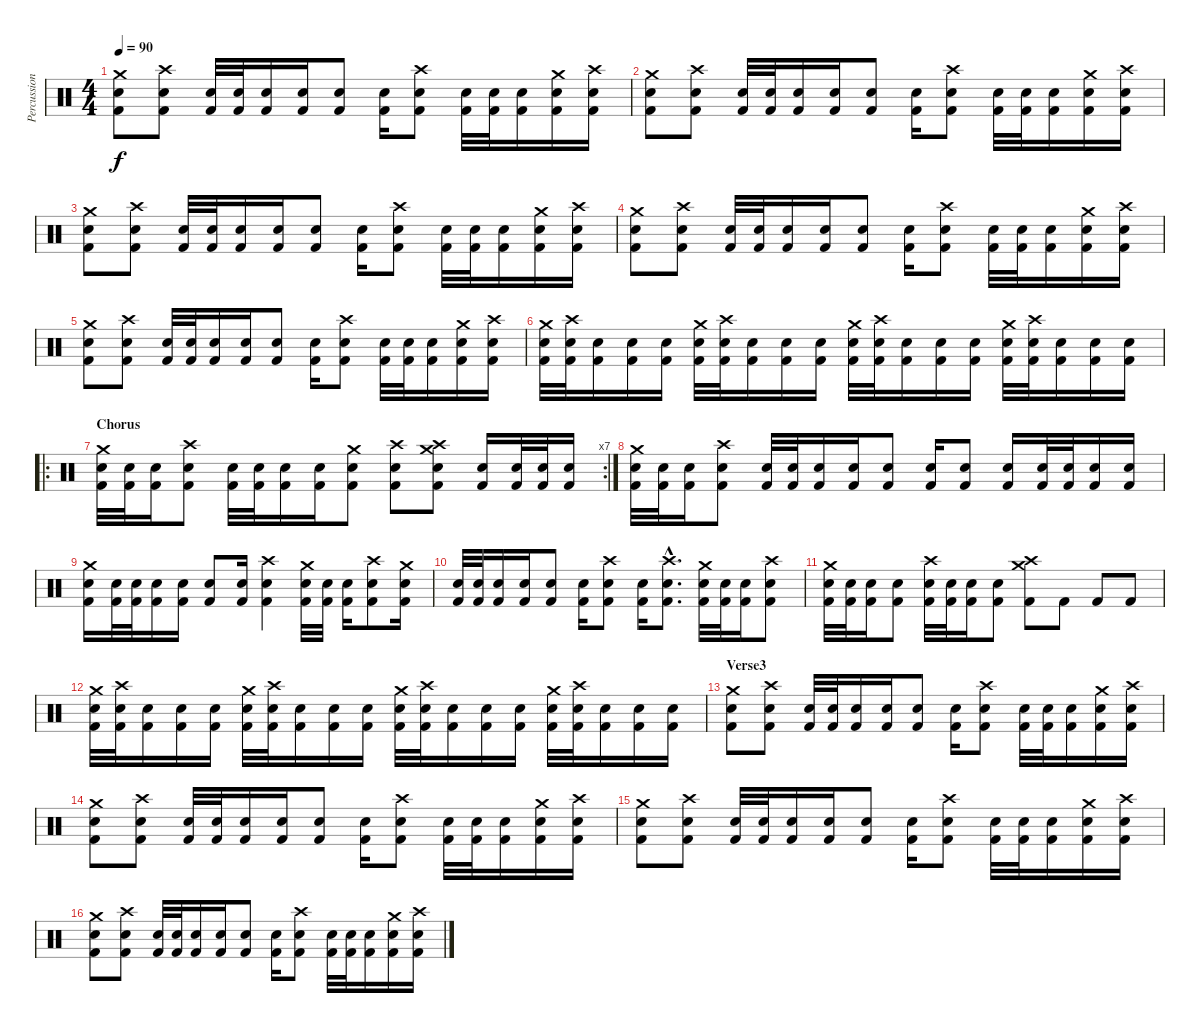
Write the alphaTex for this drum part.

\track ("Percussion" "Percussion") {instrument percussion}
\staff {score}
\articulation defaults
\ts (4 4)
\tempo 90
\clef neutral
\ks c
("Crash medium (hit)" "Kick (hit) 2" "Electric Snare (hit)").8{dy f} ("Crash high (hit)" "Kick (hit) 2" "Electric Snare (hit)").8 ("Kick (hit) 2" "Electric Snare (hit)").32 ("Kick (hit) 2" "Electric Snare (hit)").32 ("Kick (hit) 2" "Electric Snare (hit)").16 ("Kick (hit) 2" "Electric Snare (hit)").16 ("Kick (hit) 2" "Electric Snare (hit)").8 ("Kick (hit) 2" "Electric Snare (hit)").16 ("Crash high (hit)" "Kick (hit) 2" "Electric Snare (hit)").8 ("Kick (hit) 2" "Electric Snare (hit)").32 ("Kick (hit) 2" "Electric Snare (hit)").32 ("Kick (hit) 2" "Electric Snare (hit)").16 ("Crash medium (hit)" "Kick (hit) 2" "Electric Snare (hit)").16 ("Crash high (hit)" "Kick (hit) 2" "Electric Snare (hit)").16 |
("Crash medium (hit)" "Kick (hit) 2" "Electric Snare (hit)").8 ("Crash high (hit)" "Kick (hit) 2" "Electric Snare (hit)").8 ("Kick (hit) 2" "Electric Snare (hit)").32 ("Kick (hit) 2" "Electric Snare (hit)").32 ("Kick (hit) 2" "Electric Snare (hit)").16 ("Kick (hit) 2" "Electric Snare (hit)").16 ("Kick (hit) 2" "Electric Snare (hit)").8 ("Kick (hit) 2" "Electric Snare (hit)").16 ("Crash high (hit)" "Kick (hit) 2" "Electric Snare (hit)").8 ("Kick (hit) 2" "Electric Snare (hit)").32 ("Kick (hit) 2" "Electric Snare (hit)").32 ("Kick (hit) 2" "Electric Snare (hit)").16 ("Crash medium (hit)" "Kick (hit) 2" "Electric Snare (hit)").16 ("Crash high (hit)" "Kick (hit) 2" "Electric Snare (hit)").16 |
("Crash medium (hit)" "Kick (hit) 2" "Electric Snare (hit)").8 ("Crash high (hit)" "Kick (hit) 2" "Electric Snare (hit)").8 ("Kick (hit) 2" "Electric Snare (hit)").32 ("Kick (hit) 2" "Electric Snare (hit)").32 ("Kick (hit) 2" "Electric Snare (hit)").16 ("Kick (hit) 2" "Electric Snare (hit)").16 ("Kick (hit) 2" "Electric Snare (hit)").8 ("Kick (hit) 2" "Electric Snare (hit)").16 ("Crash high (hit)" "Kick (hit) 2" "Electric Snare (hit)").8 ("Kick (hit) 2" "Electric Snare (hit)").32 ("Kick (hit) 2" "Electric Snare (hit)").32 ("Kick (hit) 2" "Electric Snare (hit)").16 ("Crash medium (hit)" "Kick (hit) 2" "Electric Snare (hit)").16 ("Crash high (hit)" "Kick (hit) 2" "Electric Snare (hit)").16 |
("Crash medium (hit)" "Kick (hit) 2" "Electric Snare (hit)").8 ("Crash high (hit)" "Kick (hit) 2" "Electric Snare (hit)").8 ("Kick (hit) 2" "Electric Snare (hit)").32 ("Kick (hit) 2" "Electric Snare (hit)").32 ("Kick (hit) 2" "Electric Snare (hit)").16 ("Kick (hit) 2" "Electric Snare (hit)").16 ("Kick (hit) 2" "Electric Snare (hit)").8 ("Kick (hit) 2" "Electric Snare (hit)").16 ("Crash high (hit)" "Kick (hit) 2" "Electric Snare (hit)").8 ("Kick (hit) 2" "Electric Snare (hit)").32 ("Kick (hit) 2" "Electric Snare (hit)").32 ("Kick (hit) 2" "Electric Snare (hit)").16 ("Crash medium (hit)" "Kick (hit) 2" "Electric Snare (hit)").16 ("Crash high (hit)" "Kick (hit) 2" "Electric Snare (hit)").16 |
("Crash medium (hit)" "Kick (hit) 2" "Electric Snare (hit)").8 ("Crash high (hit)" "Kick (hit) 2" "Electric Snare (hit)").8 ("Kick (hit) 2" "Electric Snare (hit)").32 ("Kick (hit) 2" "Electric Snare (hit)").32 ("Kick (hit) 2" "Electric Snare (hit)").16 ("Kick (hit) 2" "Electric Snare (hit)").16 ("Kick (hit) 2" "Electric Snare (hit)").8 ("Kick (hit) 2" "Electric Snare (hit)").16 ("Crash high (hit)" "Kick (hit) 2" "Electric Snare (hit)").8 ("Kick (hit) 2" "Electric Snare (hit)").32 ("Kick (hit) 2" "Electric Snare (hit)").32 ("Kick (hit) 2" "Electric Snare (hit)").16 ("Crash medium (hit)" "Kick (hit) 2" "Electric Snare (hit)").16 ("Crash high (hit)" "Kick (hit) 2" "Electric Snare (hit)").16 |
("Crash medium (hit)" "Electric Snare (hit)" "Kick (hit) 2").32 ("Crash high (hit)" "Electric Snare (hit)" "Kick (hit) 2").32 ("Electric Snare (hit)" "Kick (hit) 2").16 ("Electric Snare (hit)" "Kick (hit) 2").16 ("Electric Snare (hit)" "Kick (hit) 2").16 ("Crash medium (hit)" "Electric Snare (hit)" "Kick (hit) 2").32 ("Crash high (hit)" "Electric Snare (hit)" "Kick (hit) 2").32 ("Electric Snare (hit)" "Kick (hit) 2").16 ("Electric Snare (hit)" "Kick (hit) 2").16 ("Electric Snare (hit)" "Kick (hit) 2").16 ("Crash medium (hit)" "Electric Snare (hit)" "Kick (hit) 2").32 ("Crash high (hit)" "Electric Snare (hit)" "Kick (hit) 2").32 ("Electric Snare (hit)" "Kick (hit) 2").16 ("Electric Snare (hit)" "Kick (hit) 2").16 ("Electric Snare (hit)" "Kick (hit) 2").16 ("Crash medium (hit)" "Electric Snare (hit)" "Kick (hit) 2").32 ("Crash high (hit)" "Electric Snare (hit)" "Kick (hit) 2").32 ("Electric Snare (hit)" "Kick (hit) 2").16 ("Electric Snare (hit)" "Kick (hit) 2").16 ("Electric Snare (hit)" "Kick (hit) 2").16 |
\ro
\rc 7
\section ("" "Chorus")
("Crash medium (hit)" "Electric Snare (hit)" "Kick (hit) 2").32 ("Electric Snare (hit)" "Kick (hit) 2").32 ("Electric Snare (hit)" "Kick (hit) 2").16 ("Crash high (hit)" "Electric Snare (hit)" "Kick (hit) 2").8 ("Kick (hit) 2" "Electric Snare (hit)").32 ("Kick (hit) 2" "Electric Snare (hit)").32 ("Kick (hit) 2" "Electric Snare (hit)").16 ("Kick (hit) 2" "Electric Snare (hit)").16 ("Crash medium (hit)" "Kick (hit) 2" "Electric Snare (hit)").8 ("Crash high (hit)" "Kick (hit) 2" "Electric Snare (hit)").8 ("Crash medium (hit)" "Kick (hit) 2" "Electric Snare (hit)" "Crash high (hit)").8 ("Kick (hit) 2" "Electric Snare (hit)").16 ("Kick (hit) 2" "Electric Snare (hit)").32 ("Kick (hit) 2" "Electric Snare (hit)").32 ("Kick (hit) 2" "Electric Snare (hit)").16 |
("Crash medium (hit)" "Electric Snare (hit)" "Kick (hit) 2").32 ("Electric Snare (hit)" "Kick (hit) 2").32 ("Electric Snare (hit)" "Kick (hit) 2").16 ("Crash high (hit)" "Electric Snare (hit)" "Kick (hit) 2").8 ("Kick (hit) 2" "Electric Snare (hit)").32 ("Kick (hit) 2" "Electric Snare (hit)").32 ("Kick (hit) 2" "Electric Snare (hit)").16 ("Kick (hit) 2" "Electric Snare (hit)").16 ("Kick (hit) 2" "Electric Snare (hit)").8 ("Kick (hit) 2" "Electric Snare (hit)").16 ("Kick (hit) 2" "Electric Snare (hit)").8 ("Kick (hit) 2" "Electric Snare (hit)").16 ("Kick (hit) 2" "Electric Snare (hit)").32 ("Kick (hit) 2" "Electric Snare (hit)").32 ("Kick (hit) 2" "Electric Snare (hit)").16 ("Kick (hit) 2" "Electric Snare (hit)").16 |
("Crash medium (hit)" "Kick (hit) 2" "Electric Snare (hit)").16 ("Kick (hit) 2" "Electric Snare (hit)").32 ("Kick (hit) 2" "Electric Snare (hit)").32 ("Kick (hit) 2" "Electric Snare (hit)").16 ("Kick (hit) 2" "Electric Snare (hit)").16 ("Kick (hit) 2" "Electric Snare (hit)").8 ("Kick (hit) 2" "Electric Snare (hit)").16 ("Crash high (hit)" "Kick (hit) 2" "Electric Snare (hit)").4 ("Crash medium (hit)" "Electric Snare (hit)" "Kick (hit) 2").32 ("Electric Snare (hit)" "Kick (hit) 2").32 ("Electric Snare (hit)" "Kick (hit) 2").16 ("Crash high (hit)" "Electric Snare (hit)" "Kick (hit) 2").8 ("Crash medium (hit)" "Kick (hit) 2" "Electric Snare (hit)").16 |
("Kick (hit) 2" "Electric Snare (hit)").32 ("Kick (hit) 2" "Electric Snare (hit)").32 ("Kick (hit) 2" "Electric Snare (hit)").16 ("Kick (hit) 2" "Electric Snare (hit)").16 ("Kick (hit) 2" "Electric Snare (hit)").8 ("Kick (hit) 2" "Electric Snare (hit)").16 ("Crash high (hit)" "Kick (hit) 2" "Electric Snare (hit)").8 ("Kick (hit) 2" "Electric Snare (hit)").16 ("Crash high (hit)"{hac} "Kick (hit) 2"{hac} "Electric Snare (hit)"{hac}).8{d} ("Crash medium (hit)" "Kick (hit) 2" "Electric Snare (hit)").32 ("Kick (hit) 2" "Electric Snare (hit)").32 ("Kick (hit) 2" "Electric Snare (hit)").16 ("Crash high (hit)" "Kick (hit) 2" "Electric Snare (hit)").8 |
("Crash medium (hit)" "Kick (hit) 2" "Electric Snare (hit)").32 ("Kick (hit) 2" "Electric Snare (hit)").32 ("Kick (hit) 2" "Electric Snare (hit)").16 ("Kick (hit) 2" "Electric Snare (hit)").8 ("Crash high (hit)" "Kick (hit) 2" "Electric Snare (hit)").32 ("Kick (hit) 2" "Electric Snare (hit)").32 ("Kick (hit) 2" "Electric Snare (hit)").16 ("Kick (hit) 2" "Electric Snare (hit)").8 ("Crash medium (hit)" "Crash high (hit)" "Kick (hit) 2").8 "Kick (hit) 2".8 "Kick (hit) 2".8 "Kick (hit) 2".8 |
("Crash medium (hit)" "Electric Snare (hit)" "Kick (hit) 2").32 ("Crash high (hit)" "Electric Snare (hit)" "Kick (hit) 2").32 ("Electric Snare (hit)" "Kick (hit) 2").16 ("Electric Snare (hit)" "Kick (hit) 2").16 ("Electric Snare (hit)" "Kick (hit) 2").16 ("Crash medium (hit)" "Electric Snare (hit)" "Kick (hit) 2").32 ("Crash high (hit)" "Electric Snare (hit)" "Kick (hit) 2").32 ("Electric Snare (hit)" "Kick (hit) 2").16 ("Electric Snare (hit)" "Kick (hit) 2").16 ("Electric Snare (hit)" "Kick (hit) 2").16 ("Crash medium (hit)" "Electric Snare (hit)" "Kick (hit) 2").32 ("Crash high (hit)" "Electric Snare (hit)" "Kick (hit) 2").32 ("Electric Snare (hit)" "Kick (hit) 2").16 ("Electric Snare (hit)" "Kick (hit) 2").16 ("Electric Snare (hit)" "Kick (hit) 2").16 ("Crash medium (hit)" "Electric Snare (hit)" "Kick (hit) 2").32 ("Crash high (hit)" "Electric Snare (hit)" "Kick (hit) 2").32 ("Electric Snare (hit)" "Kick (hit) 2").16 ("Electric Snare (hit)" "Kick (hit) 2").16 ("Electric Snare (hit)" "Kick (hit) 2").16 |
\section ("" "Verse3")
("Crash medium (hit)" "Kick (hit) 2" "Electric Snare (hit)").8 ("Crash high (hit)" "Kick (hit) 2" "Electric Snare (hit)").8 ("Kick (hit) 2" "Electric Snare (hit)").32 ("Kick (hit) 2" "Electric Snare (hit)").32 ("Kick (hit) 2" "Electric Snare (hit)").16 ("Kick (hit) 2" "Electric Snare (hit)").16 ("Kick (hit) 2" "Electric Snare (hit)").8 ("Kick (hit) 2" "Electric Snare (hit)").16 ("Crash high (hit)" "Kick (hit) 2" "Electric Snare (hit)").8 ("Kick (hit) 2" "Electric Snare (hit)").32 ("Kick (hit) 2" "Electric Snare (hit)").32 ("Kick (hit) 2" "Electric Snare (hit)").16 ("Crash medium (hit)" "Kick (hit) 2" "Electric Snare (hit)").16 ("Crash high (hit)" "Kick (hit) 2" "Electric Snare (hit)").16 |
("Crash medium (hit)" "Kick (hit) 2" "Electric Snare (hit)").8 ("Crash high (hit)" "Kick (hit) 2" "Electric Snare (hit)").8 ("Kick (hit) 2" "Electric Snare (hit)").32 ("Kick (hit) 2" "Electric Snare (hit)").32 ("Kick (hit) 2" "Electric Snare (hit)").16 ("Kick (hit) 2" "Electric Snare (hit)").16 ("Kick (hit) 2" "Electric Snare (hit)").8 ("Kick (hit) 2" "Electric Snare (hit)").16 ("Crash high (hit)" "Kick (hit) 2" "Electric Snare (hit)").8 ("Kick (hit) 2" "Electric Snare (hit)").32 ("Kick (hit) 2" "Electric Snare (hit)").32 ("Kick (hit) 2" "Electric Snare (hit)").16 ("Crash medium (hit)" "Kick (hit) 2" "Electric Snare (hit)").16 ("Crash high (hit)" "Kick (hit) 2" "Electric Snare (hit)").16 |
("Crash medium (hit)" "Kick (hit) 2" "Electric Snare (hit)").8 ("Crash high (hit)" "Kick (hit) 2" "Electric Snare (hit)").8 ("Kick (hit) 2" "Electric Snare (hit)").32 ("Kick (hit) 2" "Electric Snare (hit)").32 ("Kick (hit) 2" "Electric Snare (hit)").16 ("Kick (hit) 2" "Electric Snare (hit)").16 ("Kick (hit) 2" "Electric Snare (hit)").8 ("Kick (hit) 2" "Electric Snare (hit)").16 ("Crash high (hit)" "Kick (hit) 2" "Electric Snare (hit)").8 ("Kick (hit) 2" "Electric Snare (hit)").32 ("Kick (hit) 2" "Electric Snare (hit)").32 ("Kick (hit) 2" "Electric Snare (hit)").16 ("Crash medium (hit)" "Kick (hit) 2" "Electric Snare (hit)").16 ("Crash high (hit)" "Kick (hit) 2" "Electric Snare (hit)").16 |
("Crash medium (hit)" "Kick (hit) 2" "Electric Snare (hit)").8 ("Crash high (hit)" "Kick (hit) 2" "Electric Snare (hit)").8 ("Kick (hit) 2" "Electric Snare (hit)").32 ("Kick (hit) 2" "Electric Snare (hit)").32 ("Kick (hit) 2" "Electric Snare (hit)").16 ("Kick (hit) 2" "Electric Snare (hit)").16 ("Kick (hit) 2" "Electric Snare (hit)").8 ("Kick (hit) 2" "Electric Snare (hit)").16 ("Crash high (hit)" "Kick (hit) 2" "Electric Snare (hit)").8 ("Kick (hit) 2" "Electric Snare (hit)").32 ("Kick (hit) 2" "Electric Snare (hit)").32 ("Kick (hit) 2" "Electric Snare (hit)").16 ("Crash medium (hit)" "Kick (hit) 2" "Electric Snare (hit)").16 ("Crash high (hit)" "Kick (hit) 2" "Electric Snare (hit)").16
